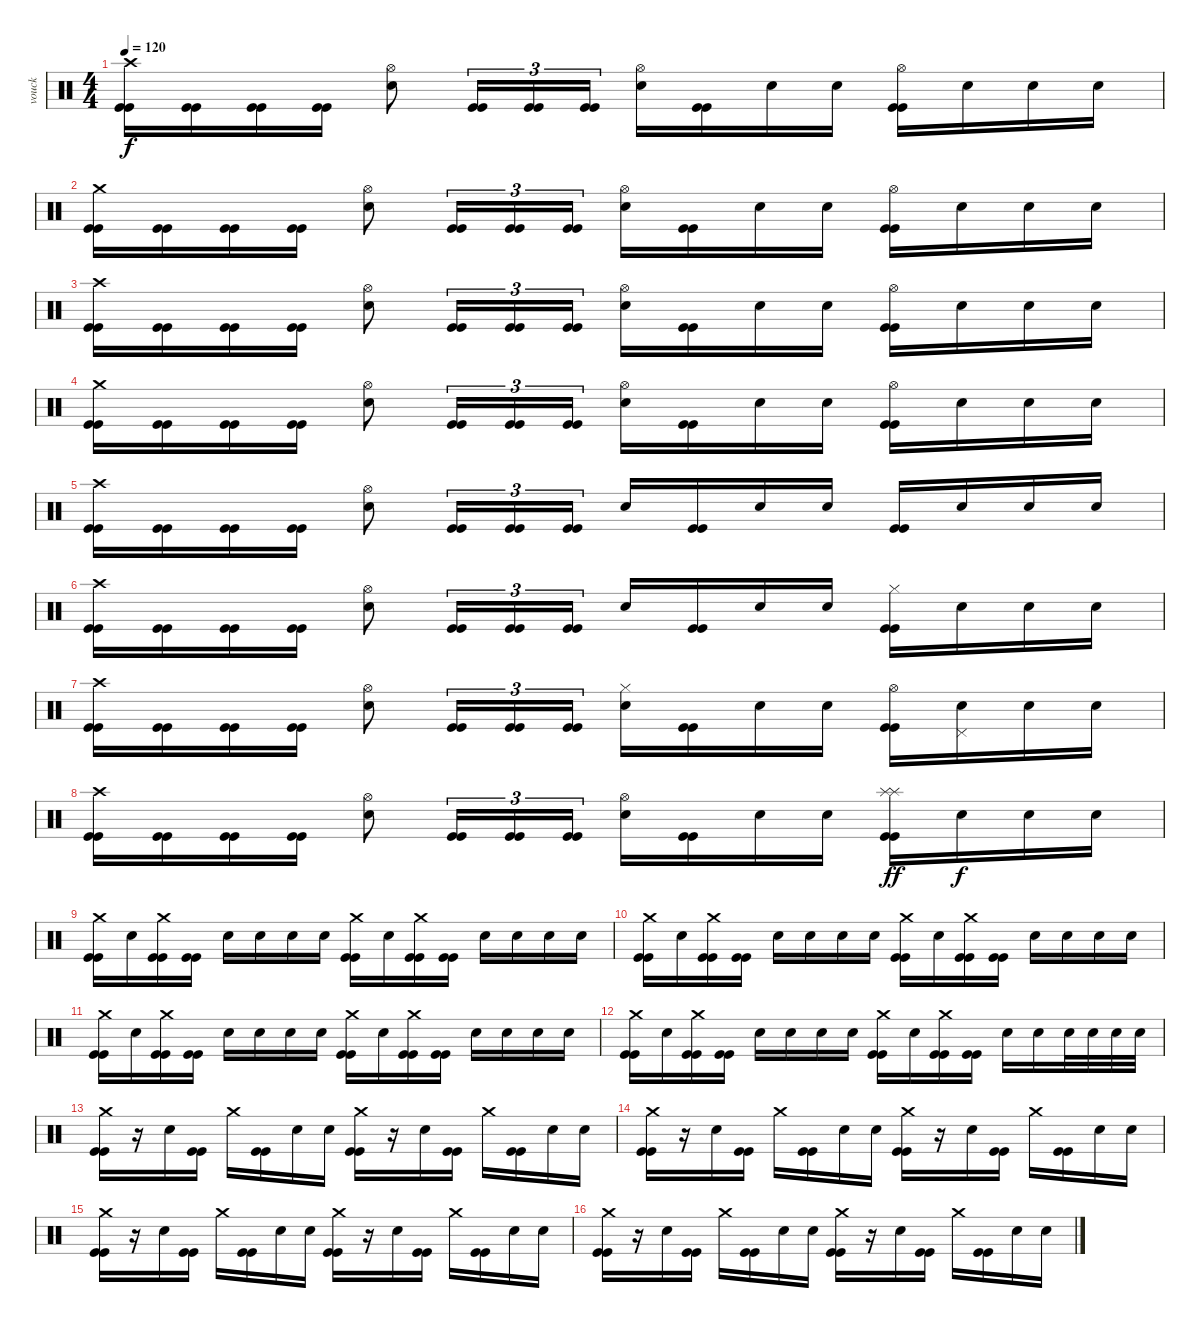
\track ("vouck" "vouck") {instrument percussion}
\staff {score}
\articulation defaults
\ts (4 4)
\tempo 120
\clef neutral
\ks c
("Crash high (hit)" "Kick (hit)" "Kick (hit)").16{dy f} ("Kick (hit)" "Kick (hit)").16 ("Kick (hit)" "Kick (hit)").16 ("Kick (hit)" "Kick (hit)").16 ("Hi-Hat (open)" "Electric Snare (hit)").8 ("Kick (hit)" "Kick (hit)").16{tu (3 2)} ("Kick (hit)" "Kick (hit)").16{tu (3 2)} ("Kick (hit)" "Kick (hit)").16{tu (3 2)} ("Hi-Hat (open)" "Electric Snare (hit)").16 ("Kick (hit)" "Kick (hit)").16 "Electric Snare (hit)".16 "Electric Snare (hit)".16 ("Hi-Hat (open)" "Kick (hit)" "Kick (hit)").16 "Electric Snare (hit)".16 "Electric Snare (hit)".16 "Electric Snare (hit)".16 |
("Crash medium (hit)" "Kick (hit)" "Kick (hit)").16 ("Kick (hit)" "Kick (hit)").16 ("Kick (hit)" "Kick (hit)").16 ("Kick (hit)" "Kick (hit)").16 ("Hi-Hat (open)" "Electric Snare (hit)").8 ("Kick (hit)" "Kick (hit)").16{tu (3 2)} ("Kick (hit)" "Kick (hit)").16{tu (3 2)} ("Kick (hit)" "Kick (hit)").16{tu (3 2)} ("Hi-Hat (open)" "Electric Snare (hit)").16 ("Kick (hit)" "Kick (hit)").16 "Electric Snare (hit)".16 "Electric Snare (hit)".16 ("Hi-Hat (open)" "Kick (hit)" "Kick (hit)").16 "Electric Snare (hit)".16 "Electric Snare (hit)".16 "Electric Snare (hit)".16 |
("Crash high (hit)" "Kick (hit)" "Kick (hit)").16 ("Kick (hit)" "Kick (hit)").16 ("Kick (hit)" "Kick (hit)").16 ("Kick (hit)" "Kick (hit)").16 ("Hi-Hat (open)" "Electric Snare (hit)").8 ("Kick (hit)" "Kick (hit)").16{tu (3 2)} ("Kick (hit)" "Kick (hit)").16{tu (3 2)} ("Kick (hit)" "Kick (hit)").16{tu (3 2)} ("Hi-Hat (open)" "Electric Snare (hit)").16 ("Kick (hit)" "Kick (hit)").16 "Electric Snare (hit)".16 "Electric Snare (hit)".16 ("Hi-Hat (open)" "Kick (hit)" "Kick (hit)").16 "Electric Snare (hit)".16 "Electric Snare (hit)".16 "Electric Snare (hit)".16 |
("Crash medium (hit)" "Kick (hit)" "Kick (hit)").16 ("Kick (hit)" "Kick (hit)").16 ("Kick (hit)" "Kick (hit)").16 ("Kick (hit)" "Kick (hit)").16 ("Hi-Hat (open)" "Electric Snare (hit)").8 ("Kick (hit)" "Kick (hit)").16{tu (3 2)} ("Kick (hit)" "Kick (hit)").16{tu (3 2)} ("Kick (hit)" "Kick (hit)").16{tu (3 2)} ("Hi-Hat (open)" "Electric Snare (hit)").16 ("Kick (hit)" "Kick (hit)").16 "Electric Snare (hit)".16 "Electric Snare (hit)".16 ("Hi-Hat (open)" "Kick (hit)" "Kick (hit)").16 "Electric Snare (hit)".16 "Electric Snare (hit)".16 "Electric Snare (hit)".16 |
("Crash high (hit)" "Kick (hit)" "Kick (hit)").16 ("Kick (hit)" "Kick (hit)").16 ("Kick (hit)" "Kick (hit)").16 ("Kick (hit)" "Kick (hit)").16 ("Hi-Hat (open)" "Electric Snare (hit)").8 ("Kick (hit)" "Kick (hit)").16{tu (3 2)} ("Kick (hit)" "Kick (hit)").16{tu (3 2)} ("Kick (hit)" "Kick (hit)").16{tu (3 2)} "Electric Snare (hit)".16 ("Kick (hit)" "Kick (hit)").16 "Electric Snare (hit)".16 "Electric Snare (hit)".16 ("Kick (hit)" "Kick (hit)").16 "Electric Snare (hit)".16 "Electric Snare (hit)".16 "Electric Snare (hit)".16 |
("Crash high (hit)" "Kick (hit)" "Kick (hit)").16 ("Kick (hit)" "Kick (hit)").16 ("Kick (hit)" "Kick (hit)").16 ("Kick (hit)" "Kick (hit)").16 ("Hi-Hat (open)" "Electric Snare (hit)").8 ("Kick (hit)" "Kick (hit)").16{tu (3 2)} ("Kick (hit)" "Kick (hit)").16{tu (3 2)} ("Kick (hit)" "Kick (hit)").16{tu (3 2)} "Electric Snare (hit)".16 ("Kick (hit)" "Kick (hit)").16 "Electric Snare (hit)".16 "Electric Snare (hit)".16 ("Hi-Hat (closed)" "Kick (hit)" "Kick (hit)").16 "Electric Snare (hit)".16 "Electric Snare (hit)".16 "Electric Snare (hit)".16 |
("Crash high (hit)" "Kick (hit)" "Kick (hit)").16 ("Kick (hit)" "Kick (hit)").16 ("Kick (hit)" "Kick (hit)").16 ("Kick (hit)" "Kick (hit)").16 ("Hi-Hat (open)" "Electric Snare (hit)").8 ("Kick (hit)" "Kick (hit)").16{tu (3 2)} ("Kick (hit)" "Kick (hit)").16{tu (3 2)} ("Kick (hit)" "Kick (hit)").16{tu (3 2)} ("Hi-Hat (closed)" "Electric Snare (hit)").16 ("Kick (hit)" "Kick (hit)").16 "Electric Snare (hit)".16 "Electric Snare (hit)".16 ("Hi-Hat (open)" "Kick (hit)" "Kick (hit)").16 ("Pedal Hi-Hat (hit)" "Electric Snare (hit)").16 "Electric Snare (hit)".16 "Electric Snare (hit)".16 |
("Crash high (hit)" "Kick (hit)" "Kick (hit)").16 ("Kick (hit)" "Kick (hit)").16 ("Kick (hit)" "Kick (hit)").16 ("Kick (hit)" "Kick (hit)").16 ("Hi-Hat (open)" "Electric Snare (hit)").8 ("Kick (hit)" "Kick (hit)").16{tu (3 2)} ("Kick (hit)" "Kick (hit)").16{tu (3 2)} ("Kick (hit)" "Kick (hit)").16{tu (3 2)} ("Hi-Hat (open)" "Electric Snare (hit)").16 ("Kick (hit)" "Kick (hit)").16 "Electric Snare (hit)".16 "Electric Snare (hit)".16 ("Splash (hit)" "Splash (hit)" "Kick (hit)" "Kick (hit)").16{dy ff} "Electric Snare (hit)".16{dy f} "Electric Snare (hit)".16 "Electric Snare (hit)".16 |
("Crash medium (hit)" "Kick (hit)" "Kick (hit)").16 "Electric Snare (hit)".16 ("Crash medium (hit)" "Kick (hit)" "Kick (hit)").16 ("Kick (hit)" "Kick (hit)").16 "Electric Snare (hit)".16 "Electric Snare (hit)".16 "Electric Snare (hit)".16 "Electric Snare (hit)".16 ("Crash medium (hit)" "Kick (hit)" "Kick (hit)").16 "Electric Snare (hit)".16 ("Crash medium (hit)" "Kick (hit)" "Kick (hit)").16 ("Kick (hit)" "Kick (hit)").16 "Electric Snare (hit)".16 "Electric Snare (hit)".16 "Electric Snare (hit)".16 "Electric Snare (hit)".16 |
("Crash medium (hit)" "Kick (hit)" "Kick (hit)").16 "Electric Snare (hit)".16 ("Crash medium (hit)" "Kick (hit)" "Kick (hit)").16 ("Kick (hit)" "Kick (hit)").16 "Electric Snare (hit)".16 "Electric Snare (hit)".16 "Electric Snare (hit)".16 "Electric Snare (hit)".16 ("Crash medium (hit)" "Kick (hit)" "Kick (hit)").16 "Electric Snare (hit)".16 ("Crash medium (hit)" "Kick (hit)" "Kick (hit)").16 ("Kick (hit)" "Kick (hit)").16 "Electric Snare (hit)".16 "Electric Snare (hit)".16 "Electric Snare (hit)".16 "Electric Snare (hit)".16 |
("Crash medium (hit)" "Kick (hit)" "Kick (hit)").16 "Electric Snare (hit)".16 ("Crash medium (hit)" "Kick (hit)" "Kick (hit)").16 ("Kick (hit)" "Kick (hit)").16 "Electric Snare (hit)".16 "Electric Snare (hit)".16 "Electric Snare (hit)".16 "Electric Snare (hit)".16 ("Crash medium (hit)" "Kick (hit)" "Kick (hit)").16 "Electric Snare (hit)".16 ("Crash medium (hit)" "Kick (hit)" "Kick (hit)").16 ("Kick (hit)" "Kick (hit)").16 "Electric Snare (hit)".16 "Electric Snare (hit)".16 "Electric Snare (hit)".16 "Electric Snare (hit)".16 |
("Crash medium (hit)" "Kick (hit)" "Kick (hit)").16 "Electric Snare (hit)".16 ("Crash medium (hit)" "Kick (hit)" "Kick (hit)").16 ("Kick (hit)" "Kick (hit)").16 "Electric Snare (hit)".16 "Electric Snare (hit)".16 "Electric Snare (hit)".16 "Electric Snare (hit)".16 ("Crash medium (hit)" "Kick (hit)" "Kick (hit)").16 "Electric Snare (hit)".16 ("Crash medium (hit)" "Kick (hit)" "Kick (hit)").16 ("Kick (hit)" "Kick (hit)").16 "Electric Snare (hit)".16 "Electric Snare (hit)".16 "Electric Snare (hit)".32 "Electric Snare (hit)".32 "Electric Snare (hit)".32 "Electric Snare (hit)".32 |
("Crash medium (hit)" "Kick (hit)" "Kick (hit)").16 r.16 "Electric Snare (hit)".16 ("Kick (hit)" "Kick (hit)").16 "Crash medium (hit)".16 ("Kick (hit)" "Kick (hit)").16 "Electric Snare (hit)".16 "Electric Snare (hit)".16 ("Crash medium (hit)" "Kick (hit)" "Kick (hit)").16 r.16 "Electric Snare (hit)".16 ("Kick (hit)" "Kick (hit)").16 "Crash medium (hit)".16 ("Kick (hit)" "Kick (hit)").16 "Electric Snare (hit)".16 "Electric Snare (hit)".16 |
("Crash medium (hit)" "Kick (hit)" "Kick (hit)").16 r.16 "Electric Snare (hit)".16 ("Kick (hit)" "Kick (hit)").16 "Crash medium (hit)".16 ("Kick (hit)" "Kick (hit)").16 "Electric Snare (hit)".16 "Electric Snare (hit)".16 ("Crash medium (hit)" "Kick (hit)" "Kick (hit)").16 r.16 "Electric Snare (hit)".16 ("Kick (hit)" "Kick (hit)").16 "Crash medium (hit)".16 ("Kick (hit)" "Kick (hit)").16 "Electric Snare (hit)".16 "Electric Snare (hit)".16 |
("Crash medium (hit)" "Kick (hit)" "Kick (hit)").16 r.16 "Electric Snare (hit)".16 ("Kick (hit)" "Kick (hit)").16 "Crash medium (hit)".16 ("Kick (hit)" "Kick (hit)").16 "Electric Snare (hit)".16 "Electric Snare (hit)".16 ("Crash medium (hit)" "Kick (hit)" "Kick (hit)").16 r.16 "Electric Snare (hit)".16 ("Kick (hit)" "Kick (hit)").16 "Crash medium (hit)".16 ("Kick (hit)" "Kick (hit)").16 "Electric Snare (hit)".16 "Electric Snare (hit)".16 |
("Crash medium (hit)" "Kick (hit)" "Kick (hit)").16 r.16 "Electric Snare (hit)".16 ("Kick (hit)" "Kick (hit)").16 "Crash medium (hit)".16 ("Kick (hit)" "Kick (hit)").16 "Electric Snare (hit)".16 "Electric Snare (hit)".16 ("Crash medium (hit)" "Kick (hit)" "Kick (hit)").16 r.16 "Electric Snare (hit)".16 ("Kick (hit)" "Kick (hit)").16 "Crash medium (hit)".16 ("Kick (hit)" "Kick (hit)").16 "Electric Snare (hit)".16 "Electric Snare (hit)".16
